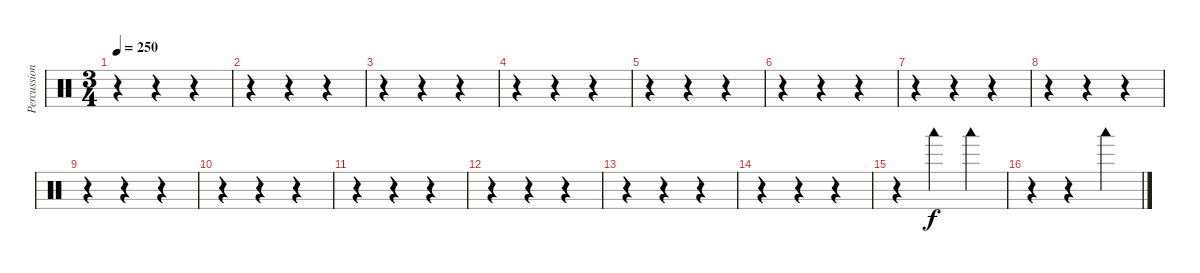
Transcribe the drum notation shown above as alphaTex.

\track ("Percussions" "Percussion") {instrument percussion}
\staff {score}
\articulation defaults
\ts (3 4)
\tempo 250
\clef neutral
\ks c
r.4{dy f} r.4 r.4 |
r.4 r.4 r.4 |
r.4 r.4 r.4 |
r.4 r.4 r.4 |
r.4 r.4 r.4 |
r.4 r.4 r.4 |
r.4 r.4 r.4 |
r.4 r.4 r.4 |
r.4 r.4 r.4 |
r.4 r.4 r.4 |
r.4 r.4 r.4 |
r.4 r.4 r.4 |
r.4 r.4 r.4 |
r.4 r.4 r.4 |
r.4 "Woodblock low (hit)".4 "Woodblock low (hit)".4 |
r.4 r.4 "Woodblock low (hit)".4
